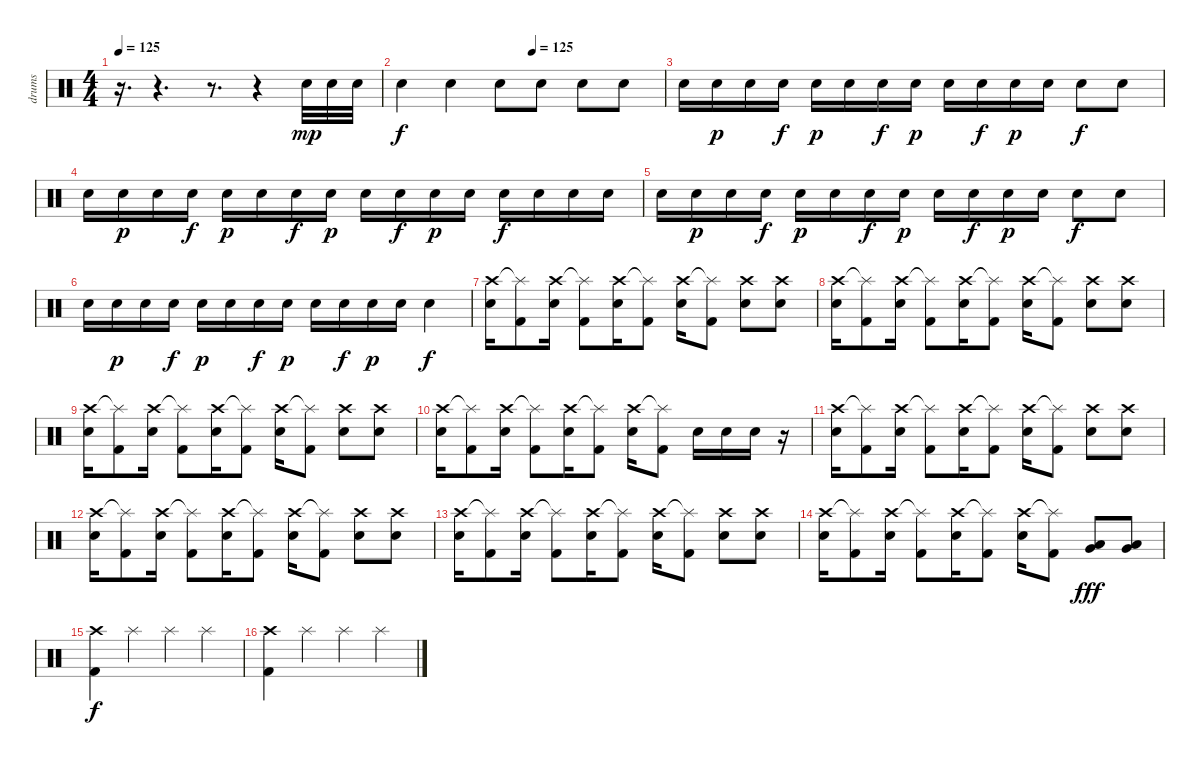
\track ("drums" "drums") {instrument percussion}
\staff {score}
\articulation defaults
\ts (4 4)
\tempo 125
\tempo 115
\tempo 125
\clef neutral
\ks c
r.16{d dy mp volume 6} r.4{d} r.8{d} r.4 "Electric Snare (hit)".32 "Electric Snare (hit)".32 "Electric Snare (hit)".32 |
\tempo (125 0.5)
"Electric Snare (hit)".4{dy f} "Electric Snare (hit)".4 "Electric Snare (hit)".8 "Electric Snare (hit)".8 "Electric Snare (hit)".8 "Electric Snare (hit)".8 |
"Electric Snare (hit)".16 "Electric Snare (hit)".16{dy p} "Electric Snare (hit)".16 "Electric Snare (hit)".16{dy f} "Electric Snare (hit)".16{dy p} "Electric Snare (hit)".16 "Electric Snare (hit)".16{dy f} "Electric Snare (hit)".16{dy p} "Electric Snare (hit)".16 "Electric Snare (hit)".16{dy f} "Electric Snare (hit)".16{dy p} "Electric Snare (hit)".16 "Electric Snare (hit)".8{dy f} "Electric Snare (hit)".8 |
"Electric Snare (hit)".16 "Electric Snare (hit)".16{dy p} "Electric Snare (hit)".16 "Electric Snare (hit)".16{dy f} "Electric Snare (hit)".16{dy p} "Electric Snare (hit)".16 "Electric Snare (hit)".16{dy f} "Electric Snare (hit)".16{dy p} "Electric Snare (hit)".16 "Electric Snare (hit)".16{dy f} "Electric Snare (hit)".16{dy p} "Electric Snare (hit)".16 "Electric Snare (hit)".16{dy f} "Electric Snare (hit)".16 "Electric Snare (hit)".16 "Electric Snare (hit)".16 |
"Electric Snare (hit)".16 "Electric Snare (hit)".16{dy p} "Electric Snare (hit)".16 "Electric Snare (hit)".16{dy f} "Electric Snare (hit)".16{dy p} "Electric Snare (hit)".16 "Electric Snare (hit)".16{dy f} "Electric Snare (hit)".16{dy p} "Electric Snare (hit)".16 "Electric Snare (hit)".16{dy f} "Electric Snare (hit)".16{dy p} "Electric Snare (hit)".16 "Electric Snare (hit)".8{dy f} "Electric Snare (hit)".8 |
"Electric Snare (hit)".16 "Electric Snare (hit)".16{dy p} "Electric Snare (hit)".16 "Electric Snare (hit)".16{dy f} "Electric Snare (hit)".16{dy p} "Electric Snare (hit)".16 "Electric Snare (hit)".16{dy f} "Electric Snare (hit)".16{dy p} "Electric Snare (hit)".16 "Electric Snare (hit)".16{dy f} "Electric Snare (hit)".16{dy p} "Electric Snare (hit)".16 "Electric Snare (hit)".4{dy f} |
("Crash high (hit)" "Electric Snare (hit)").16{volume 14} ("Splash (hit)"{t} "Kick (hit) 2").8 ("Crash high (hit)" "Electric Snare (hit)").16 ("Splash (hit)"{t} "Kick (hit) 2").8 ("Crash high (hit)" "Electric Snare (hit)").16 ("Splash (hit)"{t} "Kick (hit) 2").8 ("Crash high (hit)" "Electric Snare (hit)").16 ("Splash (hit)"{t} "Kick (hit) 2").8 ("Crash high (hit)" "Electric Snare (hit)").8 ("Crash high (hit)" "Electric Snare (hit)").8 |
("Crash high (hit)" "Electric Snare (hit)").16 ("Splash (hit)"{t} "Kick (hit) 2").8 ("Crash high (hit)" "Electric Snare (hit)").16 ("Splash (hit)"{t} "Kick (hit) 2").8 ("Crash high (hit)" "Electric Snare (hit)").16 ("Splash (hit)"{t} "Kick (hit) 2").8 ("Crash high (hit)" "Electric Snare (hit)").16 ("Splash (hit)"{t} "Kick (hit) 2").8 ("Crash high (hit)" "Electric Snare (hit)").8 ("Crash high (hit)" "Electric Snare (hit)").8 |
("Crash high (hit)" "Electric Snare (hit)").16 ("Splash (hit)"{t} "Kick (hit) 2").8 ("Crash high (hit)" "Electric Snare (hit)").16 ("Splash (hit)"{t} "Kick (hit) 2").8 ("Crash high (hit)" "Electric Snare (hit)").16 ("Splash (hit)"{t} "Kick (hit) 2").8 ("Crash high (hit)" "Electric Snare (hit)").16 ("Splash (hit)"{t} "Kick (hit) 2").8 ("Crash high (hit)" "Electric Snare (hit)").8 ("Crash high (hit)" "Electric Snare (hit)").8 |
("Crash high (hit)" "Electric Snare (hit)").16 ("Splash (hit)"{t} "Kick (hit) 2").8 ("Crash high (hit)" "Electric Snare (hit)").16 ("Splash (hit)"{t} "Kick (hit) 2").8 ("Crash high (hit)" "Electric Snare (hit)").16 ("Splash (hit)"{t} "Kick (hit) 2").8 ("Crash high (hit)" "Electric Snare (hit)").16 ("Splash (hit)"{t} "Kick (hit) 2").8 "Electric Snare (hit)".16 "Electric Snare (hit)".16 "Electric Snare (hit)".16 r.16 |
("Crash high (hit)" "Electric Snare (hit)").16 ("Splash (hit)"{t} "Kick (hit) 2").8 ("Crash high (hit)" "Electric Snare (hit)").16 ("Splash (hit)"{t} "Kick (hit) 2").8 ("Crash high (hit)" "Electric Snare (hit)").16 ("Splash (hit)"{t} "Kick (hit) 2").8 ("Crash high (hit)" "Electric Snare (hit)").16 ("Splash (hit)"{t} "Kick (hit) 2").8 ("Crash high (hit)" "Electric Snare (hit)").8 ("Crash high (hit)" "Electric Snare (hit)").8 |
("Crash high (hit)" "Electric Snare (hit)").16 ("Splash (hit)"{t} "Kick (hit) 2").8 ("Crash high (hit)" "Electric Snare (hit)").16 ("Splash (hit)"{t} "Kick (hit) 2").8 ("Crash high (hit)" "Electric Snare (hit)").16 ("Splash (hit)"{t} "Kick (hit) 2").8 ("Crash high (hit)" "Electric Snare (hit)").16 ("Splash (hit)"{t} "Kick (hit) 2").8 ("Crash high (hit)" "Electric Snare (hit)").8 ("Crash high (hit)" "Electric Snare (hit)").8 |
("Crash high (hit)" "Electric Snare (hit)").16 ("Splash (hit)"{t} "Kick (hit) 2").8 ("Crash high (hit)" "Electric Snare (hit)").16 ("Splash (hit)"{t} "Kick (hit) 2").8 ("Crash high (hit)" "Electric Snare (hit)").16 ("Splash (hit)"{t} "Kick (hit) 2").8 ("Crash high (hit)" "Electric Snare (hit)").16 ("Splash (hit)"{t} "Kick (hit) 2").8 ("Crash high (hit)" "Electric Snare (hit)").8 ("Crash high (hit)" "Electric Snare (hit)").8 |
("Crash high (hit)" "Electric Snare (hit)").16 ("Splash (hit)"{t} "Kick (hit) 2").8 ("Crash high (hit)" "Electric Snare (hit)").16 ("Splash (hit)"{t} "Kick (hit) 2").8 ("Crash high (hit)" "Electric Snare (hit)").16 ("Splash (hit)"{t} "Kick (hit) 2").8 ("Crash high (hit)" "Electric Snare (hit)").16 ("Splash (hit)"{t} "Kick (hit) 2").8 ("Low Floor Tom (hit)" "Very Low Tom (hit)").8{dy fff} ("Low Floor Tom (hit)" "Very Low Tom (hit)").8 |
("Crash high (hit)" "Kick (hit) 2").4{dy f} "Splash (hit)".4 "Splash (hit)".4 "Splash (hit)".4 |
("Crash high (hit)" "Kick (hit) 2").4 "Splash (hit)".4 "Splash (hit)".4 "Splash (hit)".4
